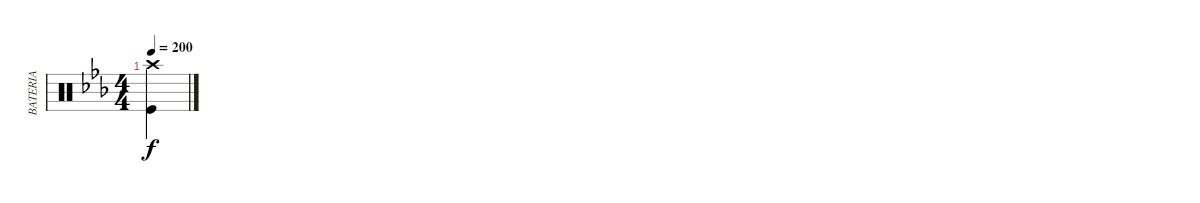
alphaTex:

\track ("BATERIA" "BATERIA") {instrument percussion}
\staff {score}
\articulation defaults
\ts (4 4)
\tempo 200
\clef neutral
\ks cminor
("Kick (hit)" "Crash high (hit)").4{dy f}
